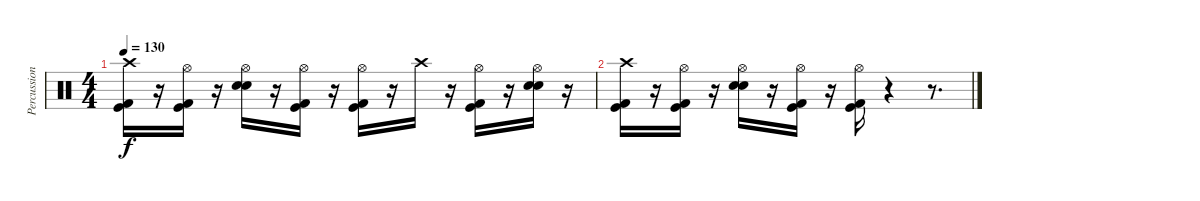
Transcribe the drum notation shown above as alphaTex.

\track ("Percussions" "Percussion") {instrument percussion}
\staff {score}
\articulation defaults
\ts (4 4)
\tempo 130
\clef neutral
\ks c
("Crash high (hit)" "Kick (hit)" "Kick (hit) 2").16{dy f} r.16 ("Hi-Hat (open)" "Kick (hit)" "Kick (hit) 2").16 r.16 ("Hi-Hat (open)" "Snare (hit) 2" "Electric Snare (hit)").16 r.16 ("Hi-Hat (open)" "Kick (hit)" "Kick (hit) 2").16 r.16 ("Hi-Hat (open)" "Kick (hit)" "Kick (hit) 2").16 r.16 "Crash high (hit)".16 r.16 ("Hi-Hat (open)" "Kick (hit)" "Kick (hit) 2").16 r.16 ("Hi-Hat (open)" "Snare (hit) 2" "Electric Snare (hit)").16 r.16 |
("Crash high (hit)" "Kick (hit)" "Kick (hit) 2").16 r.16 ("Hi-Hat (open)" "Kick (hit)" "Kick (hit) 2").16 r.16 ("Hi-Hat (open)" "Snare (hit) 2" "Electric Snare (hit)").16 r.16 ("Hi-Hat (open)" "Kick (hit)" "Kick (hit) 2").16 r.16 ("Hi-Hat (open)" "Kick (hit)" "Kick (hit) 2").16 r.4 r.8{d}
